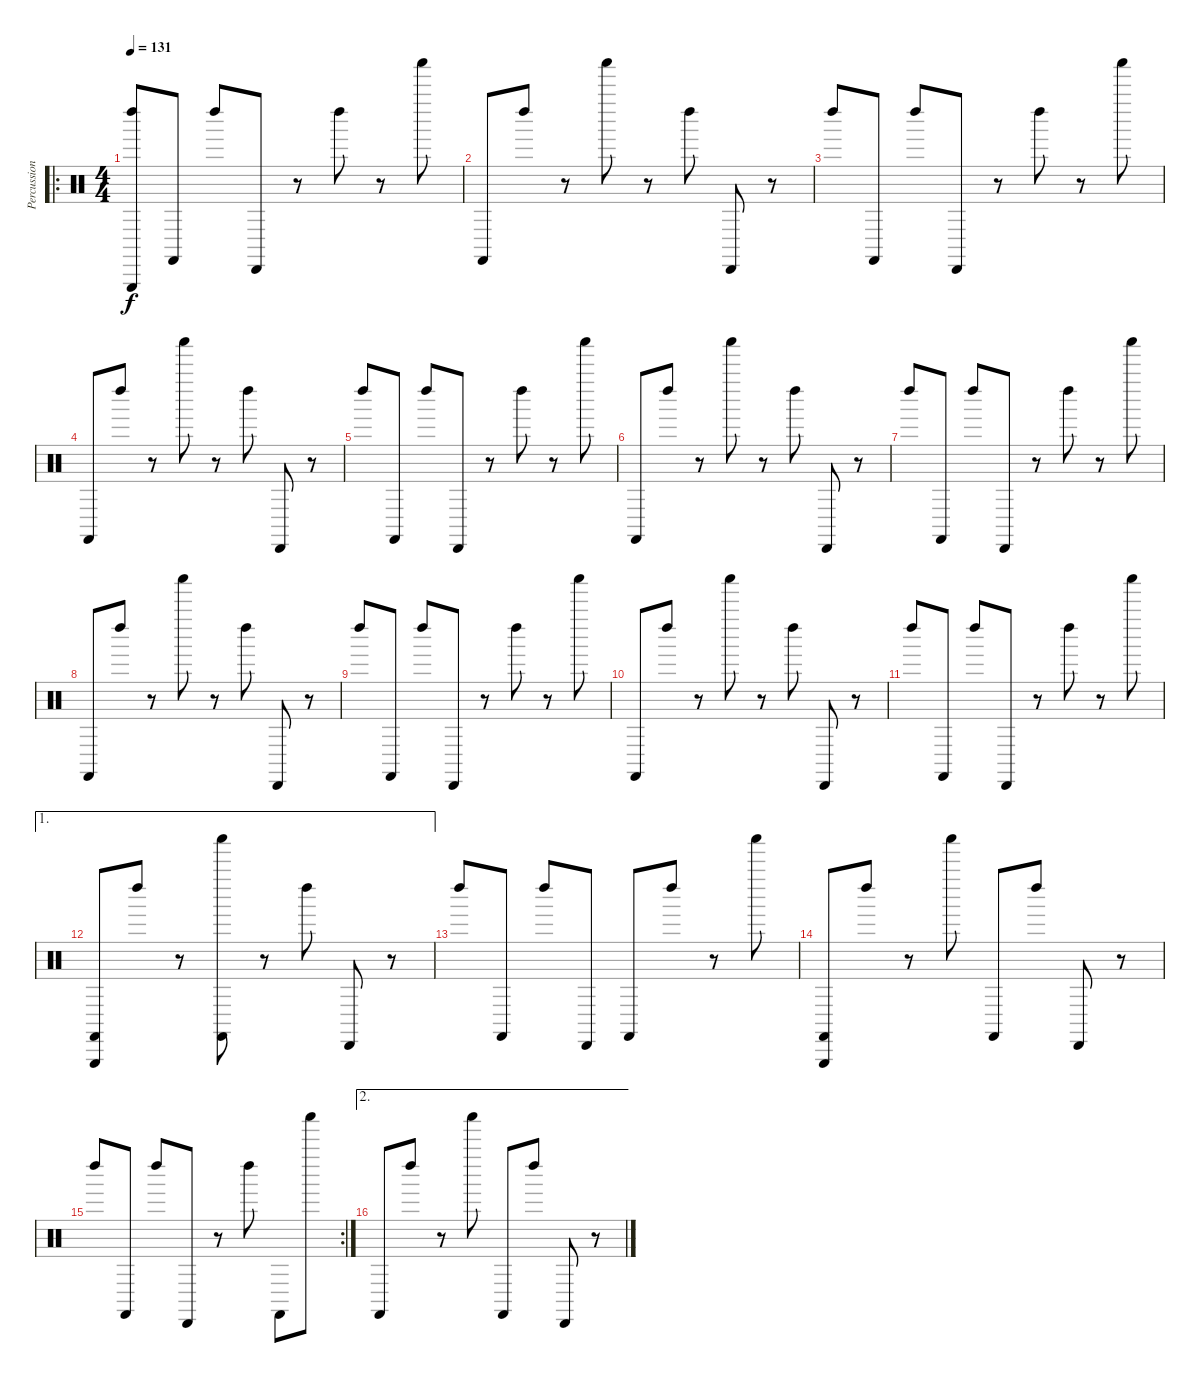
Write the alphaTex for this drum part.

\track ("Percussions" "Percussion") {instrument percussion}
\staff {score}
\articulation defaults
\ro
\ts (4 4)
\tempo 131
\clef neutral
\ks c
("Left Maraca (hit)" "Triangle (hit)").8{dy f} "Castanets (hit)".8 "Left Maraca (hit)".8 "Cabasa (hit)".8 r.8 "Left Maraca (hit)".8 r.8 "Shaker (hit)".8 |
"Castanets (hit)".8 "Left Maraca (hit)".8 r.8 "Shaker (hit)".8 r.8 "Left Maraca (hit)".8 "Cabasa (hit)".8 r.8 |
"Left Maraca (hit)".8 "Castanets (hit)".8 "Left Maraca (hit)".8 "Cabasa (hit)".8 r.8 "Left Maraca (hit)".8 r.8 "Shaker (hit)".8 |
"Castanets (hit)".8 "Left Maraca (hit)".8 r.8 "Shaker (hit)".8 r.8 "Left Maraca (hit)".8 "Cabasa (hit)".8 r.8 |
"Left Maraca (hit)".8 "Castanets (hit)".8 "Left Maraca (hit)".8 "Cabasa (hit)".8 r.8 "Left Maraca (hit)".8 r.8 "Shaker (hit)".8 |
"Castanets (hit)".8 "Left Maraca (hit)".8 r.8 "Shaker (hit)".8 r.8 "Left Maraca (hit)".8 "Cabasa (hit)".8 r.8 |
"Left Maraca (hit)".8 "Castanets (hit)".8 "Left Maraca (hit)".8 "Cabasa (hit)".8 r.8 "Left Maraca (hit)".8 r.8 "Shaker (hit)".8 |
"Castanets (hit)".8 "Left Maraca (hit)".8 r.8 "Shaker (hit)".8 r.8 "Left Maraca (hit)".8 "Cabasa (hit)".8 r.8 |
"Left Maraca (hit)".8 "Castanets (hit)".8 "Left Maraca (hit)".8 "Cabasa (hit)".8 r.8 "Left Maraca (hit)".8 r.8 "Shaker (hit)".8 |
"Castanets (hit)".8 "Left Maraca (hit)".8 r.8 "Shaker (hit)".8 r.8 "Left Maraca (hit)".8 "Cabasa (hit)".8 r.8 |
"Left Maraca (hit)".8 "Castanets (hit)".8 "Left Maraca (hit)".8 "Cabasa (hit)".8 r.8 "Left Maraca (hit)".8 r.8 "Shaker (hit)".8 |
\ae 1
("Castanets (hit)" "Triangle (hit)").8 "Left Maraca (hit)".8 r.8 ("Shaker (hit)" "Castanets (hit)").8 r.8 "Left Maraca (hit)".8 "Cabasa (hit)".8 r.8 |
"Left Maraca (hit)".8 "Castanets (hit)".8 "Left Maraca (hit)".8 "Cabasa (hit)".8 "Castanets (hit)".8 "Left Maraca (hit)".8 r.8 "Shaker (hit)".8 |
("Castanets (hit)" "Triangle (hit)").8 "Left Maraca (hit)".8 r.8 "Shaker (hit)".8 "Castanets (hit)".8 "Left Maraca (hit)".8 "Cabasa (hit)".8 r.8 |
\rc 2 "Left Maraca (hit)".8 "Castanets (hit)".8 "Left Maraca (hit)".8 "Cabasa (hit)".8
r.8 "Left Maraca (hit)".8 "Castanets (hit)".8 "Shaker (hit)".8 |
\ae 2 "Castanets (hit)".8 "Left Maraca (hit)".8
r.8 "Shaker (hit)".8 "Castanets (hit)".8 "Left Maraca (hit)".8 "Cabasa (hit)".8 r.8
